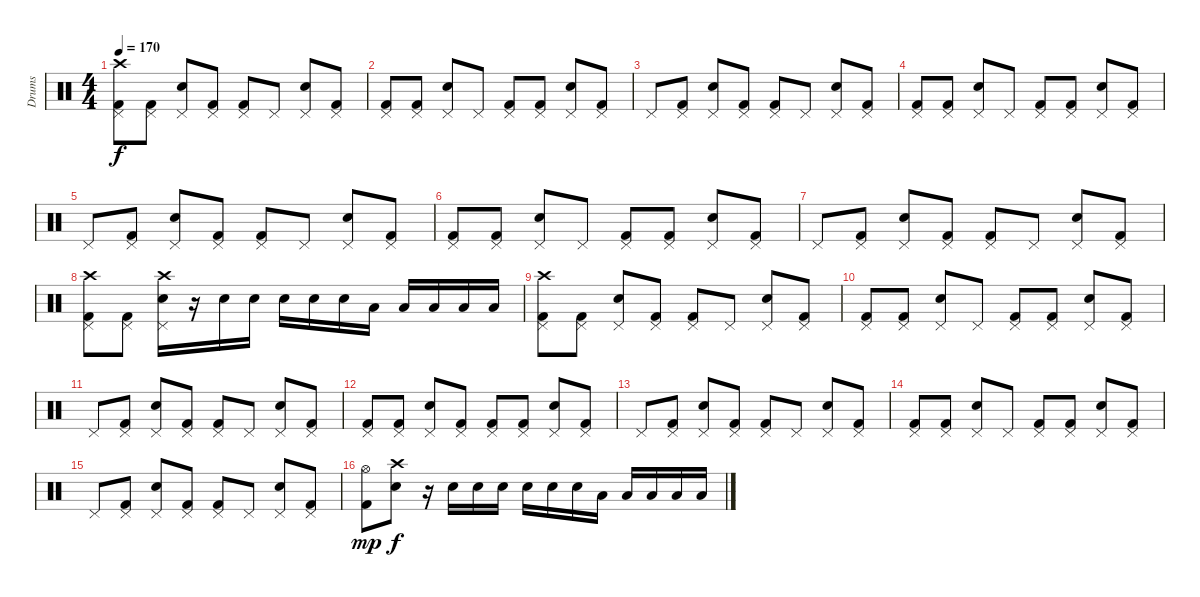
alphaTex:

\track ("Drums" "Drums") {instrument percussion}
\staff {score}
\articulation defaults
\ts (4 4)
\tempo 170
\clef neutral
\ks c
("Crash high (hit)" "Pedal Hi-Hat (hit)" "Kick (hit) 2").8{dy f} ("Pedal Hi-Hat (hit)" "Kick (hit) 2").8 ("Pedal Hi-Hat (hit)" "Snare (hit) 2").8 ("Pedal Hi-Hat (hit)" "Kick (hit) 2").8 ("Pedal Hi-Hat (hit)" "Kick (hit) 2").8 "Pedal Hi-Hat (hit)".8 ("Pedal Hi-Hat (hit)" "Snare (hit) 2").8 ("Pedal Hi-Hat (hit)" "Kick (hit) 2").8 |
("Pedal Hi-Hat (hit)" "Kick (hit) 2").8 ("Pedal Hi-Hat (hit)" "Kick (hit) 2").8 ("Pedal Hi-Hat (hit)" "Snare (hit) 2").8 "Pedal Hi-Hat (hit)".8 ("Pedal Hi-Hat (hit)" "Kick (hit) 2").8 ("Pedal Hi-Hat (hit)" "Kick (hit) 2").8 ("Pedal Hi-Hat (hit)" "Snare (hit) 2").8 ("Pedal Hi-Hat (hit)" "Kick (hit) 2").8 |
"Pedal Hi-Hat (hit)".8 ("Pedal Hi-Hat (hit)" "Kick (hit) 2").8 ("Pedal Hi-Hat (hit)" "Snare (hit) 2").8 ("Pedal Hi-Hat (hit)" "Kick (hit) 2").8 ("Pedal Hi-Hat (hit)" "Kick (hit) 2").8 "Pedal Hi-Hat (hit)".8 ("Pedal Hi-Hat (hit)" "Snare (hit) 2").8 ("Pedal Hi-Hat (hit)" "Kick (hit) 2").8 |
("Pedal Hi-Hat (hit)" "Kick (hit) 2").8 ("Pedal Hi-Hat (hit)" "Kick (hit) 2").8 ("Pedal Hi-Hat (hit)" "Snare (hit) 2").8 "Pedal Hi-Hat (hit)".8 ("Pedal Hi-Hat (hit)" "Kick (hit) 2").8 ("Pedal Hi-Hat (hit)" "Kick (hit) 2").8 ("Pedal Hi-Hat (hit)" "Snare (hit) 2").8 ("Pedal Hi-Hat (hit)" "Kick (hit) 2").8 |
"Pedal Hi-Hat (hit)".8 ("Pedal Hi-Hat (hit)" "Kick (hit) 2").8 ("Pedal Hi-Hat (hit)" "Snare (hit) 2").8 ("Pedal Hi-Hat (hit)" "Kick (hit) 2").8 ("Pedal Hi-Hat (hit)" "Kick (hit) 2").8 "Pedal Hi-Hat (hit)".8 ("Pedal Hi-Hat (hit)" "Snare (hit) 2").8 ("Pedal Hi-Hat (hit)" "Kick (hit) 2").8 |
("Pedal Hi-Hat (hit)" "Kick (hit) 2").8 ("Pedal Hi-Hat (hit)" "Kick (hit) 2").8 ("Pedal Hi-Hat (hit)" "Snare (hit) 2").8 "Pedal Hi-Hat (hit)".8 ("Pedal Hi-Hat (hit)" "Kick (hit) 2").8 ("Pedal Hi-Hat (hit)" "Kick (hit) 2").8 ("Pedal Hi-Hat (hit)" "Snare (hit) 2").8 ("Pedal Hi-Hat (hit)" "Kick (hit) 2").8 |
"Pedal Hi-Hat (hit)".8 ("Pedal Hi-Hat (hit)" "Kick (hit) 2").8 ("Pedal Hi-Hat (hit)" "Snare (hit) 2").8 ("Pedal Hi-Hat (hit)" "Kick (hit) 2").8 ("Pedal Hi-Hat (hit)" "Kick (hit) 2").8 "Pedal Hi-Hat (hit)".8 ("Pedal Hi-Hat (hit)" "Snare (hit) 2").8 ("Pedal Hi-Hat (hit)" "Kick (hit) 2").8 |
("Crash high (hit)" "Pedal Hi-Hat (hit)" "Kick (hit) 2").8 ("Pedal Hi-Hat (hit)" "Kick (hit) 2").8 ("Crash high (hit)" "Pedal Hi-Hat (hit)" "Snare (hit) 2").16 r.16 "Snare (hit) 2".16 "Snare (hit) 2".16 "Snare (hit) 2".16 "Snare (hit) 2".16 "Snare (hit) 2".16 "Low Floor Tom (hit)".16 "Low Floor Tom (hit)".16 "Low Floor Tom (hit)".16 "Low Floor Tom (hit)".16 "Low Floor Tom (hit)".16 |
("Crash high (hit)" "Pedal Hi-Hat (hit)" "Kick (hit) 2").8 ("Pedal Hi-Hat (hit)" "Kick (hit) 2").8 ("Pedal Hi-Hat (hit)" "Snare (hit) 2").8 ("Pedal Hi-Hat (hit)" "Kick (hit) 2").8 ("Pedal Hi-Hat (hit)" "Kick (hit) 2").8 "Pedal Hi-Hat (hit)".8 ("Pedal Hi-Hat (hit)" "Snare (hit) 2").8 ("Pedal Hi-Hat (hit)" "Kick (hit) 2").8 |
("Pedal Hi-Hat (hit)" "Kick (hit) 2").8 ("Pedal Hi-Hat (hit)" "Kick (hit) 2").8 ("Pedal Hi-Hat (hit)" "Snare (hit) 2").8 "Pedal Hi-Hat (hit)".8 ("Pedal Hi-Hat (hit)" "Kick (hit) 2").8 ("Pedal Hi-Hat (hit)" "Kick (hit) 2").8 ("Pedal Hi-Hat (hit)" "Snare (hit) 2").8 ("Pedal Hi-Hat (hit)" "Kick (hit) 2").8 |
"Pedal Hi-Hat (hit)".8 ("Pedal Hi-Hat (hit)" "Kick (hit) 2").8 ("Pedal Hi-Hat (hit)" "Snare (hit) 2").8 ("Pedal Hi-Hat (hit)" "Kick (hit) 2").8 ("Pedal Hi-Hat (hit)" "Kick (hit) 2").8 "Pedal Hi-Hat (hit)".8 ("Pedal Hi-Hat (hit)" "Snare (hit) 2").8 ("Pedal Hi-Hat (hit)" "Kick (hit) 2").8 |
("Pedal Hi-Hat (hit)" "Kick (hit) 2").8 ("Pedal Hi-Hat (hit)" "Kick (hit) 2").8 ("Pedal Hi-Hat (hit)" "Snare (hit) 2").8 ("Pedal Hi-Hat (hit)" "Kick (hit) 2").8 ("Pedal Hi-Hat (hit)" "Kick (hit) 2").8 ("Pedal Hi-Hat (hit)" "Kick (hit) 2").8 ("Pedal Hi-Hat (hit)" "Snare (hit) 2").8 ("Pedal Hi-Hat (hit)" "Kick (hit) 2").8 |
"Pedal Hi-Hat (hit)".8 ("Pedal Hi-Hat (hit)" "Kick (hit) 2").8 ("Pedal Hi-Hat (hit)" "Snare (hit) 2").8 ("Pedal Hi-Hat (hit)" "Kick (hit) 2").8 ("Pedal Hi-Hat (hit)" "Kick (hit) 2").8 "Pedal Hi-Hat (hit)".8 ("Pedal Hi-Hat (hit)" "Snare (hit) 2").8 ("Pedal Hi-Hat (hit)" "Kick (hit) 2").8 |
("Pedal Hi-Hat (hit)" "Kick (hit) 2").8 ("Pedal Hi-Hat (hit)" "Kick (hit) 2").8 ("Pedal Hi-Hat (hit)" "Snare (hit) 2").8 "Pedal Hi-Hat (hit)".8 ("Pedal Hi-Hat (hit)" "Kick (hit) 2").8 ("Pedal Hi-Hat (hit)" "Kick (hit) 2").8 ("Pedal Hi-Hat (hit)" "Snare (hit) 2").8 ("Pedal Hi-Hat (hit)" "Kick (hit) 2").8 |
"Pedal Hi-Hat (hit)".8 ("Pedal Hi-Hat (hit)" "Kick (hit) 2").8 ("Pedal Hi-Hat (hit)" "Snare (hit) 2").8 ("Pedal Hi-Hat (hit)" "Kick (hit) 2").8 ("Pedal Hi-Hat (hit)" "Kick (hit) 2").8 "Pedal Hi-Hat (hit)".8 ("Pedal Hi-Hat (hit)" "Snare (hit) 2").8 ("Pedal Hi-Hat (hit)" "Kick (hit) 2").8 |
("Hi-Hat (open)" "Kick (hit) 2").8{dy mp} ("Crash high (hit)" "Snare (hit) 2").8{dy f} r.16 "Snare (hit) 2".16 "Snare (hit) 2".16 "Snare (hit) 2".16 "Snare (hit) 2".16 "Snare (hit) 2".16 "Snare (hit) 2".16 "Low Floor Tom (hit)".16 "Low Floor Tom (hit)".16 "Low Floor Tom (hit)".16 "Low Floor Tom (hit)".16 "Low Floor Tom (hit)".16
